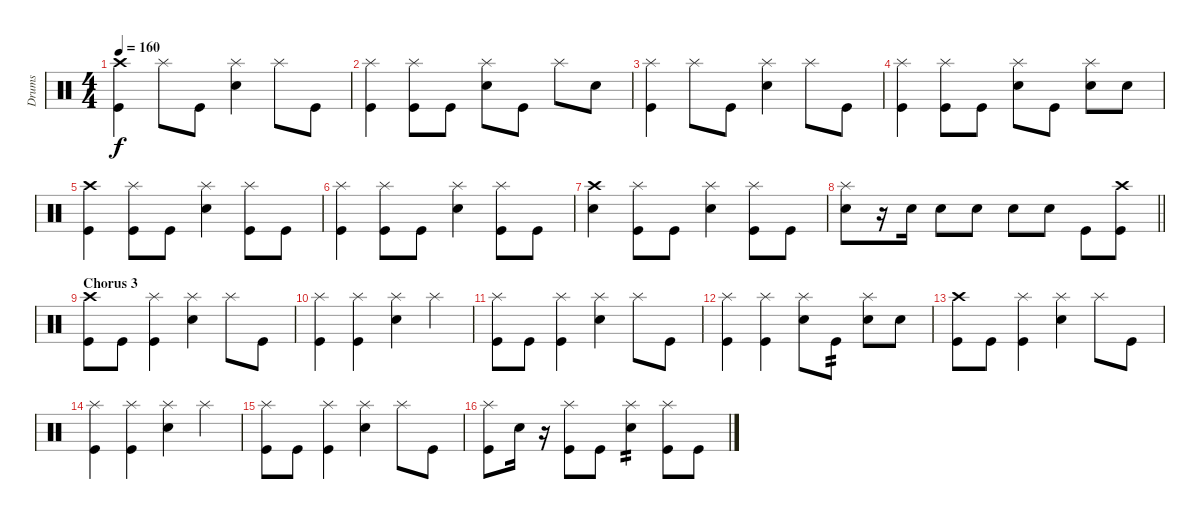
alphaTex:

\track ("Drums" "Drums") {instrument percussion}
\staff {score}
\articulation defaults
\ts (4 4)
\tempo 160
\clef neutral
\ks c
("Crash high (hit)" "Kick (hit)").4{dy f} "Splash (hit)".8 "Kick (hit)".8 ("Splash (hit)" "Snare (hit) 2").4 "Splash (hit)".8 "Kick (hit)".8 |
("Splash (hit)" "Kick (hit)").4 ("Splash (hit)" "Kick (hit)").8 "Kick (hit)".8 ("Splash (hit)" "Snare (hit) 2").8 "Kick (hit)".8 "Splash (hit)".8 "Snare (hit) 2".8 |
("Splash (hit)" "Kick (hit)").4 "Splash (hit)".8 "Kick (hit)".8 ("Splash (hit)" "Snare (hit) 2").4 "Splash (hit)".8 "Kick (hit)".8 |
("Splash (hit)" "Kick (hit)").4 ("Splash (hit)" "Kick (hit)").8 "Kick (hit)".8 ("Splash (hit)" "Snare (hit) 2").8 "Kick (hit)".8 ("Splash (hit)" "Snare (hit) 2").8 "Snare (hit) 2".8 |
("Crash high (hit)" "Kick (hit)").4 ("Splash (hit)" "Kick (hit)").8 "Kick (hit)".8 ("Splash (hit)" "Snare (hit) 2").4 ("Splash (hit)" "Kick (hit)").8 "Kick (hit)".8 |
("Splash (hit)" "Kick (hit)").4 ("Splash (hit)" "Kick (hit)").8 "Kick (hit)".8 ("Splash (hit)" "Snare (hit) 2").4 ("Splash (hit)" "Kick (hit)").8 "Kick (hit)".8 |
("Crash high (hit)" "Snare (hit) 2").4 ("Splash (hit)" "Kick (hit)").8 "Kick (hit)".8 ("Splash (hit)" "Snare (hit) 2").4 ("Splash (hit)" "Kick (hit)").8 "Kick (hit)".8 |
\barLineRight lightlight
("Splash (hit)" "Snare (hit) 2").8 r.16 "Snare (hit) 2".16 "Snare (hit) 2".8 "Snare (hit) 2".8 "Snare (hit) 2".8 "Snare (hit) 2".8 "Kick (hit)".8 ("Crash high (hit)" "Kick (hit)").8 |
\section ("" "Chorus 3")
("Crash high (hit)" "Kick (hit)").8 "Kick (hit)".8 ("Splash (hit)" "Kick (hit)").4 ("Splash (hit)" "Snare (hit) 2").4 "Splash (hit)".8 "Kick (hit)".8 |
("Splash (hit)" "Kick (hit)").4 ("Splash (hit)" "Kick (hit)").4 ("Splash (hit)" "Snare (hit) 2").4 "Splash (hit)".4 |
("Splash (hit)" "Kick (hit)").8 "Kick (hit)".8 ("Splash (hit)" "Kick (hit)").4 ("Splash (hit)" "Snare (hit) 2").4 "Splash (hit)".8 "Kick (hit)".8 |
("Splash (hit)" "Kick (hit)").4 ("Splash (hit)" "Kick (hit)").4 ("Splash (hit)" "Snare (hit) 2").8 "Kick (hit)".8{tp 2} ("Splash (hit)" "Snare (hit) 2").8 "Snare (hit) 2".8 |
("Crash high (hit)" "Kick (hit)").8 "Kick (hit)".8 ("Splash (hit)" "Kick (hit)").4 ("Splash (hit)" "Snare (hit) 2").4 "Splash (hit)".8 "Kick (hit)".8 |
("Splash (hit)" "Kick (hit)").4 ("Splash (hit)" "Kick (hit)").4 ("Splash (hit)" "Snare (hit) 2").4 "Splash (hit)".4 |
("Splash (hit)" "Kick (hit)").8 "Kick (hit)".8 ("Splash (hit)" "Kick (hit)").4 ("Splash (hit)" "Snare (hit) 2").4 "Splash (hit)".8 "Kick (hit)".8 |
("Splash (hit)" "Kick (hit)").8 "Snare (hit) 2".16 r.16 ("Splash (hit)" "Kick (hit)").8 "Kick (hit)".8 ("Splash (hit)" "Snare (hit) 2").4{tp 2} ("Splash (hit)" "Kick (hit)").8 "Kick (hit)".8
